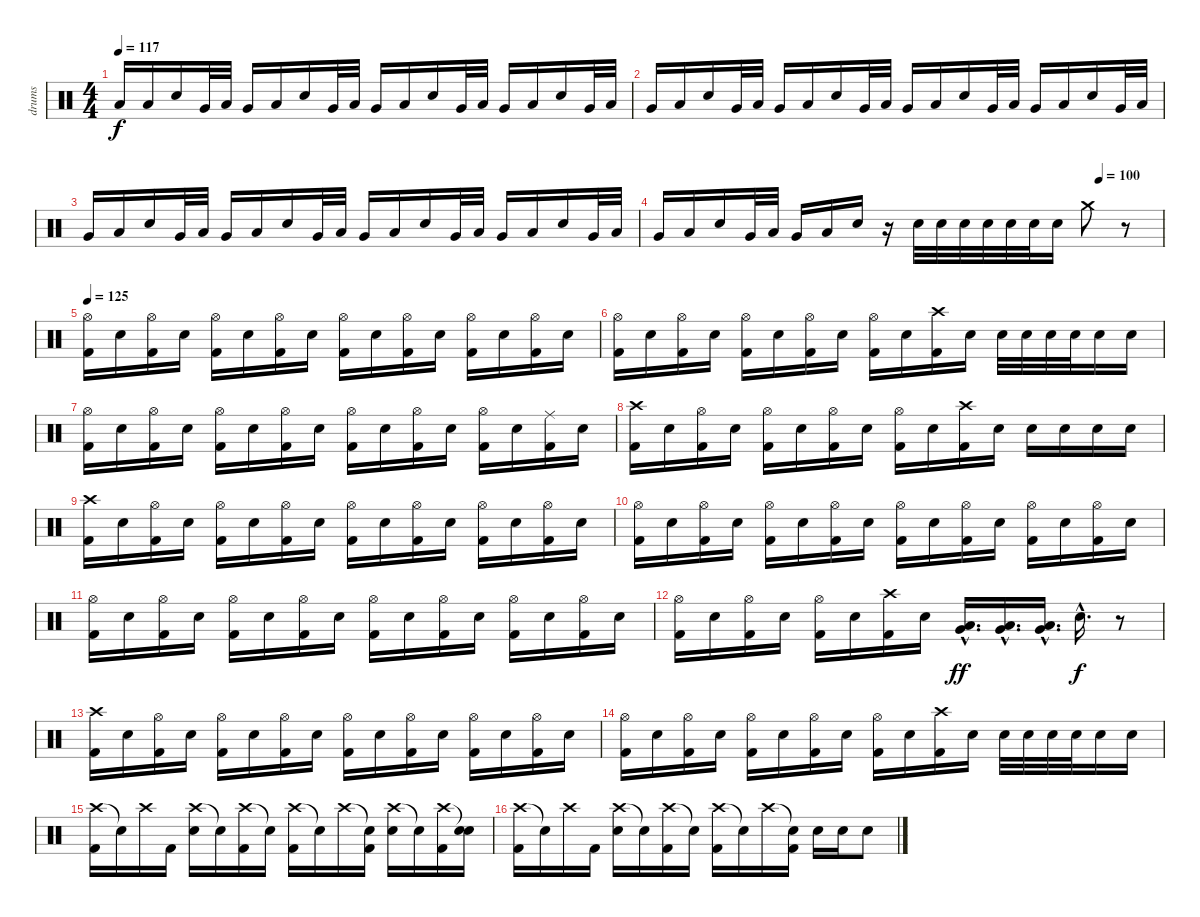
\track ("drums" "drums") {instrument percussion}
\staff {score}
\articulation defaults
\ts (4 4)
\tempo 117
\clef neutral
\ks c "Low Floor Tom (hit)".16{dy f} "Low Floor Tom (hit)".16 "Electric Snare (hit)".16 "Very Low Tom (hit)".32 "Low Floor Tom (hit)".32 "Very Low Tom (hit)".16 "Low Floor Tom (hit)".16 "Electric Snare (hit)".16 "Very Low Tom (hit)".32 "Low Floor Tom (hit)".32 "Very Low Tom (hit)".16 "Low Floor Tom (hit)".16 "Electric Snare (hit)".16 "Very Low Tom (hit)".32 "Low Floor Tom (hit)".32 "Very Low Tom (hit)".16 "Low Floor Tom (hit)".16 "Electric Snare (hit)".16 "Very Low Tom (hit)".32 "Low Floor Tom (hit)".32
|
"Very Low Tom (hit)".16 "Low Floor Tom (hit)".16 "Electric Snare (hit)".16 "Very Low Tom (hit)".32 "Low Floor Tom (hit)".32 "Very Low Tom (hit)".16 "Low Floor Tom (hit)".16 "Electric Snare (hit)".16 "Very Low Tom (hit)".32 "Low Floor Tom (hit)".32 "Very Low Tom (hit)".16 "Low Floor Tom (hit)".16 "Electric Snare (hit)".16 "Very Low Tom (hit)".32 "Low Floor Tom (hit)".32 "Very Low Tom (hit)".16 "Low Floor Tom (hit)".16 "Electric Snare (hit)".16 "Very Low Tom (hit)".32 "Low Floor Tom (hit)".32 |
"Very Low Tom (hit)".16 "Low Floor Tom (hit)".16 "Electric Snare (hit)".16 "Very Low Tom (hit)".32 "Low Floor Tom (hit)".32 "Very Low Tom (hit)".16 "Low Floor Tom (hit)".16 "Electric Snare (hit)".16 "Very Low Tom (hit)".32 "Low Floor Tom (hit)".32 "Very Low Tom (hit)".16 "Low Floor Tom (hit)".16 "Electric Snare (hit)".16 "Very Low Tom (hit)".32 "Low Floor Tom (hit)".32 "Very Low Tom (hit)".16 "Low Floor Tom (hit)".16 "Electric Snare (hit)".16 "Very Low Tom (hit)".32 "Low Floor Tom (hit)".32 |
\tempo (100 0.875)
"Very Low Tom (hit)".16 "Low Floor Tom (hit)".16 "Electric Snare (hit)".16 "Very Low Tom (hit)".32 "Low Floor Tom (hit)".32 "Very Low Tom (hit)".16 "Low Floor Tom (hit)".16 "Electric Snare (hit)".16 r.16 "Electric Snare (hit)".32 "Electric Snare (hit)".32 "Electric Snare (hit)".32 "Electric Snare (hit)".32 "Electric Snare (hit)".32 "Electric Snare (hit)".32 "Electric Snare (hit)".16 "Crash medium (hit)".8 r.8 |
\tempo 125
("Hi-Hat (open)" "Kick (hit) 2").16 "Electric Snare (hit)".16 ("Hi-Hat (open)" "Kick (hit) 2").16 "Electric Snare (hit)".16 ("Hi-Hat (open)" "Kick (hit) 2").16 "Electric Snare (hit)".16 ("Hi-Hat (open)" "Kick (hit) 2").16 "Electric Snare (hit)".16 ("Hi-Hat (open)" "Kick (hit) 2").16 "Electric Snare (hit)".16 ("Hi-Hat (open)" "Kick (hit) 2").16 "Electric Snare (hit)".16 ("Hi-Hat (open)" "Kick (hit) 2").16 "Electric Snare (hit)".16 ("Hi-Hat (open)" "Kick (hit) 2").16 "Electric Snare (hit)".16 |
("Hi-Hat (open)" "Kick (hit) 2").16 "Electric Snare (hit)".16 ("Hi-Hat (open)" "Kick (hit) 2").16 "Electric Snare (hit)".16 ("Hi-Hat (open)" "Kick (hit) 2").16 "Electric Snare (hit)".16 ("Hi-Hat (open)" "Kick (hit) 2").16 "Electric Snare (hit)".16 ("Hi-Hat (open)" "Kick (hit) 2").16 "Electric Snare (hit)".16 ("Crash high (hit)" "Kick (hit) 2").16 "Electric Snare (hit)".16 "Electric Snare (hit)".32 "Electric Snare (hit)".32 "Electric Snare (hit)".32 "Electric Snare (hit)".32 "Electric Snare (hit)".16 "Electric Snare (hit)".16 |
("Hi-Hat (open)" "Kick (hit) 2").16{volume 12} "Electric Snare (hit)".16 ("Hi-Hat (open)" "Kick (hit) 2").16 "Electric Snare (hit)".16 ("Hi-Hat (open)" "Kick (hit) 2").16 "Electric Snare (hit)".16 ("Hi-Hat (open)" "Kick (hit) 2").16 "Electric Snare (hit)".16 ("Hi-Hat (open)" "Kick (hit) 2").16 "Electric Snare (hit)".16 ("Hi-Hat (open)" "Kick (hit) 2").16 "Electric Snare (hit)".16 ("Hi-Hat (open)" "Kick (hit) 2").16 "Electric Snare (hit)".16 ("Ride (middle)" "Kick (hit) 2").16 "Electric Snare (hit)".16 |
("Crash high (hit)" "Kick (hit) 2").16 "Electric Snare (hit)".16 ("Hi-Hat (open)" "Kick (hit) 2").16 "Electric Snare (hit)".16 ("Hi-Hat (open)" "Kick (hit) 2").16 "Electric Snare (hit)".16 ("Hi-Hat (open)" "Kick (hit) 2").16 "Electric Snare (hit)".16 ("Hi-Hat (open)" "Kick (hit) 2").16 "Electric Snare (hit)".16 ("Crash high (hit)" "Kick (hit) 2").16 "Electric Snare (hit)".16 "Electric Snare (hit)".16 "Electric Snare (hit)".16 "Electric Snare (hit)".16 "Electric Snare (hit)".16 |
("Crash high (hit)" "Kick (hit) 2").16{volume 15} "Electric Snare (hit)".16 ("Hi-Hat (open)" "Kick (hit) 2").16 "Electric Snare (hit)".16 ("Hi-Hat (open)" "Kick (hit) 2").16 "Electric Snare (hit)".16 ("Hi-Hat (open)" "Kick (hit) 2").16 "Electric Snare (hit)".16 ("Hi-Hat (open)" "Kick (hit) 2").16 "Electric Snare (hit)".16 ("Hi-Hat (open)" "Kick (hit) 2").16 "Electric Snare (hit)".16 ("Hi-Hat (open)" "Kick (hit) 2").16 "Electric Snare (hit)".16 ("Hi-Hat (open)" "Kick (hit) 2").16 "Electric Snare (hit)".16 |
("Hi-Hat (open)" "Kick (hit) 2").16 "Electric Snare (hit)".16 ("Hi-Hat (open)" "Kick (hit) 2").16 "Electric Snare (hit)".16 ("Hi-Hat (open)" "Kick (hit) 2").16 "Electric Snare (hit)".16 ("Hi-Hat (open)" "Kick (hit) 2").16 "Electric Snare (hit)".16 ("Hi-Hat (open)" "Kick (hit) 2").16 "Electric Snare (hit)".16 ("Hi-Hat (open)" "Kick (hit) 2").16 "Electric Snare (hit)".16 ("Hi-Hat (open)" "Kick (hit) 2").16 "Electric Snare (hit)".16 ("Hi-Hat (open)" "Kick (hit) 2").16 "Electric Snare (hit)".16 |
("Hi-Hat (open)" "Kick (hit) 2").16 "Electric Snare (hit)".16 ("Hi-Hat (open)" "Kick (hit) 2").16 "Electric Snare (hit)".16 ("Hi-Hat (open)" "Kick (hit) 2").16 "Electric Snare (hit)".16 ("Hi-Hat (open)" "Kick (hit) 2").16 "Electric Snare (hit)".16 ("Hi-Hat (open)" "Kick (hit) 2").16 "Electric Snare (hit)".16 ("Hi-Hat (open)" "Kick (hit) 2").16 "Electric Snare (hit)".16 ("Hi-Hat (open)" "Kick (hit) 2").16 "Electric Snare (hit)".16 ("Hi-Hat (open)" "Kick (hit) 2").16 "Electric Snare (hit)".16 |
("Hi-Hat (open)" "Kick (hit) 2").16 "Electric Snare (hit)".16 ("Hi-Hat (open)" "Kick (hit) 2").16 "Electric Snare (hit)".16 ("Hi-Hat (open)" "Kick (hit) 2").16 "Electric Snare (hit)".16 ("Crash high (hit)" "Kick (hit) 2").16 "Electric Snare (hit)".16 ("Very Low Tom (hit)"{hac} "Low Floor Tom (hit)"{hac}).16{d dy ff} ("Very Low Tom (hit)"{hac} "Low Floor Tom (hit)"{hac}).16{d} ("Very Low Tom (hit)"{hac} "Low Floor Tom (hit)"{hac}).16{d} "Electric Snare (hit)"{hac}.16{d dy f} r.8 |
("Crash high (hit)" "Kick (hit) 2").16 "Electric Snare (hit)".16 ("Hi-Hat (open)" "Kick (hit) 2").16 "Electric Snare (hit)".16 ("Hi-Hat (open)" "Kick (hit) 2").16 "Electric Snare (hit)".16 ("Hi-Hat (open)" "Kick (hit) 2").16 "Electric Snare (hit)".16 ("Hi-Hat (open)" "Kick (hit) 2").16 "Electric Snare (hit)".16 ("Hi-Hat (open)" "Kick (hit) 2").16 "Electric Snare (hit)".16 ("Hi-Hat (open)" "Kick (hit) 2").16 "Electric Snare (hit)".16 ("Hi-Hat (open)" "Kick (hit) 2").16 "Electric Snare (hit)".16 |
("Hi-Hat (open)" "Kick (hit) 2").16 "Electric Snare (hit)".16 ("Hi-Hat (open)" "Kick (hit) 2").16 "Electric Snare (hit)".16 ("Hi-Hat (open)" "Kick (hit) 2").16 "Electric Snare (hit)".16 ("Hi-Hat (open)" "Kick (hit) 2").16 "Electric Snare (hit)".16 ("Hi-Hat (open)" "Kick (hit) 2").16 "Electric Snare (hit)".16 ("Crash high (hit)" "Kick (hit) 2").16 "Electric Snare (hit)".16 "Electric Snare (hit)".32 "Electric Snare (hit)".32 "Electric Snare (hit)".32 "Electric Snare (hit)".32 "Electric Snare (hit)".16 "Electric Snare (hit)".16 |
("Crash high (hit)" "Kick (hit) 2").16 "Snare (hit)"{t}.16 "Crash high (hit)".16 "Kick (hit) 2".16 ("Crash high (hit)" "Electric Snare (hit)").16 "Snare (hit)"{t}.16 ("Crash high (hit)" "Kick (hit) 2").16 "Snare (hit)"{t}.16 ("Crash high (hit)" "Kick (hit) 2").16 "Snare (hit)"{t}.16 "Crash high (hit)".16 ("Snare (hit)"{t} "Kick (hit) 2").16 ("Crash high (hit)" "Electric Snare (hit)").16 "Snare (hit)"{t}.16 ("Crash high (hit)" "Kick (hit) 2").16 ("Snare (hit)"{t} "Electric Snare (hit)").16 |
("Crash high (hit)" "Kick (hit) 2").16 "Snare (hit)"{t}.16 "Crash high (hit)".16 "Kick (hit) 2".16 ("Crash high (hit)" "Electric Snare (hit)").16 "Snare (hit)"{t}.16 ("Crash high (hit)" "Kick (hit) 2").16 "Snare (hit)"{t}.16 ("Crash high (hit)" "Kick (hit) 2").16 "Snare (hit)"{t}.16 "Crash high (hit)".16 ("Snare (hit)"{t} "Kick (hit) 2").16 "Electric Snare (hit)".16 "Electric Snare (hit)".16 "Electric Snare (hit)".8
